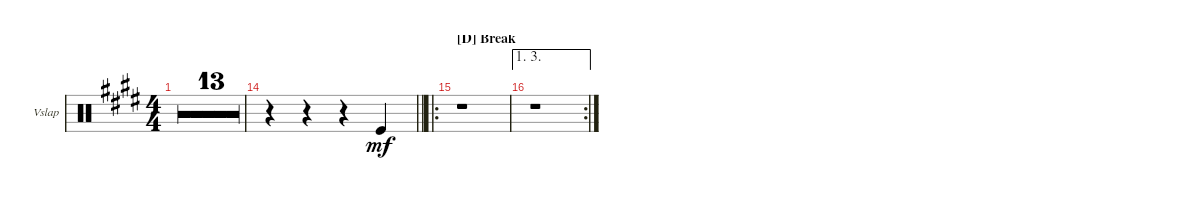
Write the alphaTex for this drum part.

\defaultSystemsLayout 4
\bracketExtendMode groupsimilarinstruments
\firstSystemTrackNameOrientation horizontal
\otherSystemsTrackNameOrientation horizontal
\track ("Vibraslap" "Vslap") {multiBarRest instrument percussion}
\staff {score}
\articulation defaults
\ts (4 4)
\tempo 120
\clef neutral
\ks e
r.1{dy mf} |
r.1 |
r.1 |
r.1 |
r.1 |
r.1 |
r.1 |
r.1 |
r.1 |
r.1 |
r.1 |
r.1 |
r.1 |
\barLineRight lightlight
r.4 r.4 r.4 "Kick (hit)".4 |
\ro
\section ("D" "Break")
r.1 |
\ae (1 3)
\rc 2
r.1
